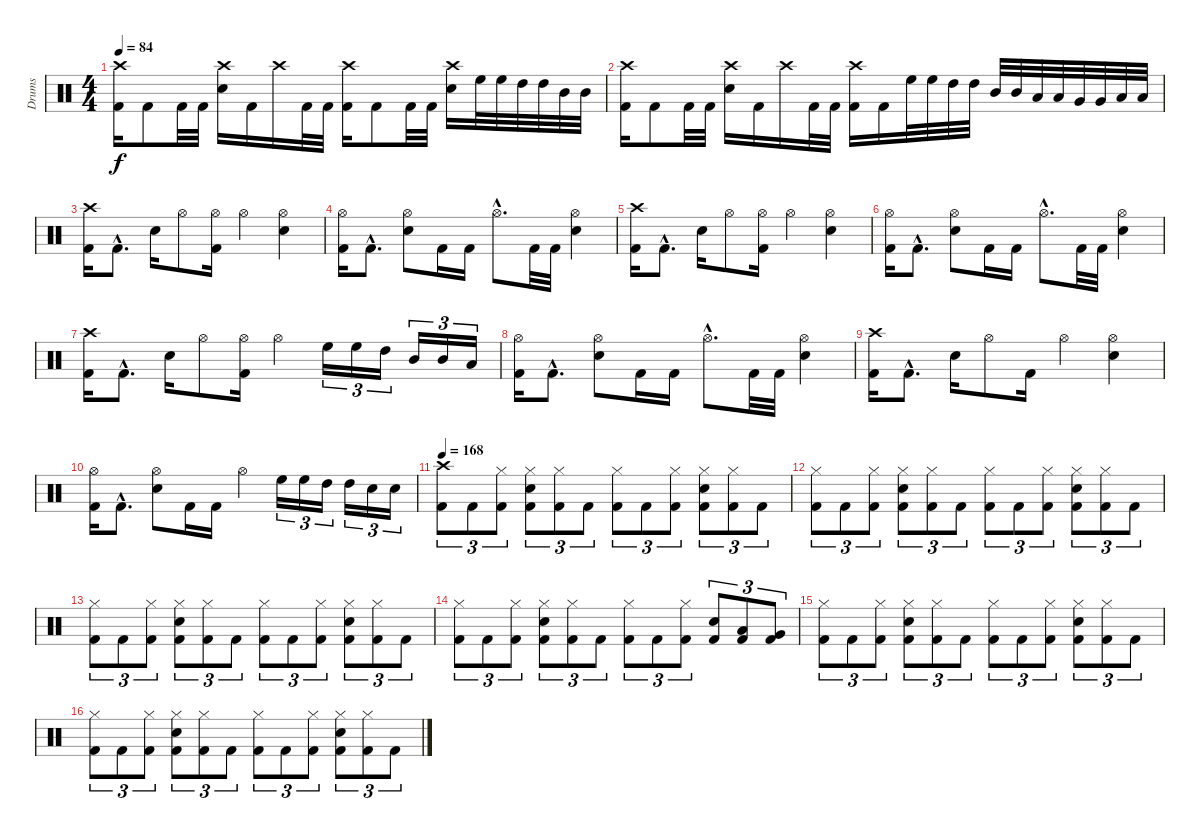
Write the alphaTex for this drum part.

\track ("Drums" "Drums") {instrument percussion}
\staff {score}
\articulation defaults
\ts (4 4)
\tempo 84
\clef neutral
\ks c
("Crash high (hit)" "Kick (hit) 2").16{dy f} "Kick (hit) 2".8 "Kick (hit) 2".32 "Kick (hit) 2".32 ("Crash high (hit)" "Electric Snare (hit)").16 "Kick (hit) 2".16 "Crash high (hit)".16 "Kick (hit) 2".32 "Kick (hit) 2".32 ("Crash high (hit)" "Kick (hit) 2").16 "Kick (hit) 2".8 "Kick (hit) 2".32 "Kick (hit) 2".32 ("Crash high (hit)" "Electric Snare (hit)").16 "High Floor Tom (hit)".32 "High Floor Tom (hit)".32 "High Tom (hit)".32 "High Tom (hit)".32 "Mid Tom (hit)".32 "Mid Tom (hit)".32 |
("Crash high (hit)" "Kick (hit) 2").16 "Kick (hit) 2".8 "Kick (hit) 2".32 "Kick (hit) 2".32 ("Crash high (hit)" "Electric Snare (hit)").16 "Kick (hit) 2".16 "Crash high (hit)".16 "Kick (hit) 2".32 "Kick (hit) 2".32 ("Crash high (hit)" "Kick (hit) 2").16 "Kick (hit) 2".16 "High Floor Tom (hit)".32 "High Floor Tom (hit)".32 "High Tom (hit)".32 "High Tom (hit)".32 "Mid Tom (hit)".32 "Mid Tom (hit)".32 "Low Tom (hit)".32 "Low Tom (hit)".32 "Very Low Tom (hit)".32 "Very Low Tom (hit)".32 "Low Floor Tom (hit)".32 "Low Floor Tom (hit)".32 |
("Crash high (hit)" "Kick (hit) 2").16 "Kick (hit) 2"{hac}.8{d} "Electric Snare (hit)".16 "Hi-Hat (open)".8 ("Hi-Hat (open)" "Kick (hit) 2").16 "Hi-Hat (open)".4 ("Hi-Hat (open)" "Electric Snare (hit)").4 |
("Hi-Hat (open)" "Kick (hit) 2").16 "Kick (hit) 2"{hac}.8{d} ("Hi-Hat (open)" "Electric Snare (hit)").8 "Kick (hit) 2".16 "Kick (hit) 2".16 "Hi-Hat (open)"{hac}.8{d} "Kick (hit) 2".32 "Kick (hit) 2".32 ("Hi-Hat (open)" "Electric Snare (hit)").4 |
("Crash high (hit)" "Kick (hit) 2").16 "Kick (hit) 2"{hac}.8{d} "Electric Snare (hit)".16 "Hi-Hat (open)".8 ("Hi-Hat (open)" "Kick (hit) 2").16 "Hi-Hat (open)".4 ("Hi-Hat (open)" "Electric Snare (hit)").4 |
("Hi-Hat (open)" "Kick (hit) 2").16 "Kick (hit) 2"{hac}.8{d} ("Hi-Hat (open)" "Electric Snare (hit)").8 "Kick (hit) 2".16 "Kick (hit) 2".16 "Hi-Hat (open)"{hac}.8{d} "Kick (hit) 2".32 "Kick (hit) 2".32 ("Hi-Hat (open)" "Electric Snare (hit)").4 |
("Crash high (hit)" "Kick (hit) 2").16 "Kick (hit) 2"{hac}.8{d} "Electric Snare (hit)".16 "Hi-Hat (open)".8 ("Hi-Hat (open)" "Kick (hit) 2").16 "Hi-Hat (open)".4 "High Floor Tom (hit)".16{tu (3 2)} "High Floor Tom (hit)".16{tu (3 2)} "High Tom (hit)".16{tu (3 2)} "Mid Tom (hit)".16{tu (3 2)} "Mid Tom (hit)".16{tu (3 2)} "Low Tom (hit)".16{tu (3 2)} |
("Hi-Hat (open)" "Kick (hit) 2").16 "Kick (hit) 2"{hac}.8{d} ("Hi-Hat (open)" "Electric Snare (hit)").8 "Kick (hit) 2".16 "Kick (hit) 2".16 "Hi-Hat (open)"{hac}.8{d} "Kick (hit) 2".32 "Kick (hit) 2".32 ("Hi-Hat (open)" "Electric Snare (hit)").4 |
("Crash high (hit)" "Kick (hit) 2").16 "Kick (hit) 2"{hac}.8{d} "Electric Snare (hit)".16 "Hi-Hat (open)".8 "Kick (hit) 2".16 "Hi-Hat (open)".4 ("Hi-Hat (open)" "Electric Snare (hit)").4 |
("Hi-Hat (open)" "Kick (hit) 2").16 "Kick (hit) 2"{hac}.8{d} ("Hi-Hat (open)" "Electric Snare (hit)").8 "Kick (hit) 2".16 "Kick (hit) 2".16 "Hi-Hat (open)".4 "High Floor Tom (hit)".16{tu (3 2)} "High Floor Tom (hit)".16{tu (3 2)} "High Tom (hit)".16{tu (3 2)} "High Tom (hit)".16{tu (3 2)} "Electric Snare (hit)".16{tu (3 2)} "Electric Snare (hit)".16{tu (3 2)} |
\tempo 168
("Crash high (hit)" "Kick (hit) 2").8{tu (3 2)} "Kick (hit) 2".8{tu (3 2)} ("Hi-Hat (closed)" "Kick (hit) 2").8{tu (3 2)} ("Hi-Hat (closed)" "Electric Snare (hit)" "Kick (hit) 2").8{tu (3 2)} ("Hi-Hat (closed)" "Kick (hit) 2").8{tu (3 2)} "Kick (hit) 2".8{tu (3 2)} ("Hi-Hat (closed)" "Kick (hit) 2").8{tu (3 2)} "Kick (hit) 2".8{tu (3 2)} ("Hi-Hat (closed)" "Kick (hit) 2").8{tu (3 2)} ("Hi-Hat (closed)" "Electric Snare (hit)" "Kick (hit) 2").8{tu (3 2)} ("Hi-Hat (closed)" "Kick (hit) 2").8{tu (3 2)} "Kick (hit) 2".8{tu (3 2)} |
("Hi-Hat (closed)" "Kick (hit) 2").8{tu (3 2)} "Kick (hit) 2".8{tu (3 2)} ("Hi-Hat (closed)" "Kick (hit) 2").8{tu (3 2)} ("Hi-Hat (closed)" "Electric Snare (hit)" "Kick (hit) 2").8{tu (3 2)} ("Hi-Hat (closed)" "Kick (hit) 2").8{tu (3 2)} "Kick (hit) 2".8{tu (3 2)} ("Hi-Hat (closed)" "Kick (hit) 2").8{tu (3 2)} "Kick (hit) 2".8{tu (3 2)} ("Hi-Hat (closed)" "Kick (hit) 2").8{tu (3 2)} ("Hi-Hat (closed)" "Electric Snare (hit)" "Kick (hit) 2").8{tu (3 2)} ("Hi-Hat (closed)" "Kick (hit) 2").8{tu (3 2)} "Kick (hit) 2".8{tu (3 2)} |
("Hi-Hat (closed)" "Kick (hit) 2").8{tu (3 2)} "Kick (hit) 2".8{tu (3 2)} ("Hi-Hat (closed)" "Kick (hit) 2").8{tu (3 2)} ("Hi-Hat (closed)" "Electric Snare (hit)" "Kick (hit) 2").8{tu (3 2)} ("Hi-Hat (closed)" "Kick (hit) 2").8{tu (3 2)} "Kick (hit) 2".8{tu (3 2)} ("Hi-Hat (closed)" "Kick (hit) 2").8{tu (3 2)} "Kick (hit) 2".8{tu (3 2)} ("Hi-Hat (closed)" "Kick (hit) 2").8{tu (3 2)} ("Hi-Hat (closed)" "Electric Snare (hit)" "Kick (hit) 2").8{tu (3 2)} ("Hi-Hat (closed)" "Kick (hit) 2").8{tu (3 2)} "Kick (hit) 2".8{tu (3 2)} |
("Hi-Hat (closed)" "Kick (hit) 2").8{tu (3 2)} "Kick (hit) 2".8{tu (3 2)} ("Hi-Hat (closed)" "Kick (hit) 2").8{tu (3 2)} ("Hi-Hat (closed)" "Electric Snare (hit)" "Kick (hit) 2").8{tu (3 2)} ("Hi-Hat (closed)" "Kick (hit) 2").8{tu (3 2)} "Kick (hit) 2".8{tu (3 2)} ("Hi-Hat (closed)" "Kick (hit) 2").8{tu (3 2)} "Kick (hit) 2".8{tu (3 2)} ("Hi-Hat (closed)" "Kick (hit) 2").8{tu (3 2)} ("Electric Snare (hit)" "Kick (hit) 2").8{tu (3 2)} ("Low Tom (hit)" "Kick (hit) 2").8{tu (3 2)} ("Very Low Tom (hit)" "Kick (hit) 2").8{tu (3 2)} |
("Hi-Hat (closed)" "Kick (hit) 2").8{tu (3 2)} "Kick (hit) 2".8{tu (3 2)} ("Hi-Hat (closed)" "Kick (hit) 2").8{tu (3 2)} ("Hi-Hat (closed)" "Electric Snare (hit)" "Kick (hit) 2").8{tu (3 2)} ("Hi-Hat (closed)" "Kick (hit) 2").8{tu (3 2)} "Kick (hit) 2".8{tu (3 2)} ("Hi-Hat (closed)" "Kick (hit) 2").8{tu (3 2)} "Kick (hit) 2".8{tu (3 2)} ("Hi-Hat (closed)" "Kick (hit) 2").8{tu (3 2)} ("Hi-Hat (closed)" "Electric Snare (hit)" "Kick (hit) 2").8{tu (3 2)} ("Hi-Hat (closed)" "Kick (hit) 2").8{tu (3 2)} "Kick (hit) 2".8{tu (3 2)} |
("Hi-Hat (closed)" "Kick (hit) 2").8{tu (3 2)} "Kick (hit) 2".8{tu (3 2)} ("Hi-Hat (closed)" "Kick (hit) 2").8{tu (3 2)} ("Hi-Hat (closed)" "Electric Snare (hit)" "Kick (hit) 2").8{tu (3 2)} ("Hi-Hat (closed)" "Kick (hit) 2").8{tu (3 2)} "Kick (hit) 2".8{tu (3 2)} ("Hi-Hat (closed)" "Kick (hit) 2").8{tu (3 2)} "Kick (hit) 2".8{tu (3 2)} ("Hi-Hat (closed)" "Kick (hit) 2").8{tu (3 2)} ("Hi-Hat (closed)" "Electric Snare (hit)" "Kick (hit) 2").8{tu (3 2)} ("Hi-Hat (closed)" "Kick (hit) 2").8{tu (3 2)} "Kick (hit) 2".8{tu (3 2)}
